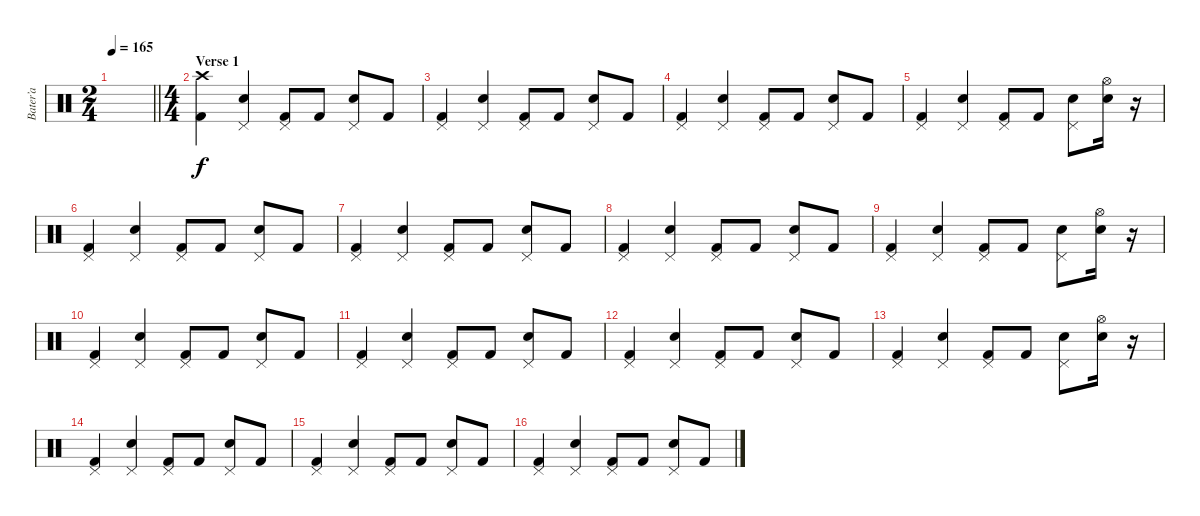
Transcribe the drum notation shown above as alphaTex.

\track ("Bater’a" "Bater’a") {instrument percussion}
\staff {score}
\articulation defaults
\ts (2 4)
\tempo 165
\clef neutral
\barLineRight lightlight
\ks c
|
\ts (4 4)
\section ("" "Verse 1")
("Crash high (hit)" "Kick (hit) 2").4 ("Pedal Hi-Hat (hit)" "Electric Snare (hit)").4 ("Pedal Hi-Hat (hit)" "Kick (hit) 2").8 "Kick (hit) 2".8 ("Pedal Hi-Hat (hit)" "Electric Snare (hit)").8 "Kick (hit) 2".8 |
("Pedal Hi-Hat (hit)" "Kick (hit) 2").4 ("Pedal Hi-Hat (hit)" "Electric Snare (hit)").4 ("Pedal Hi-Hat (hit)" "Kick (hit) 2").8 "Kick (hit) 2".8 ("Pedal Hi-Hat (hit)" "Electric Snare (hit)").8 "Kick (hit) 2".8 |
("Pedal Hi-Hat (hit)" "Kick (hit) 2").4 ("Pedal Hi-Hat (hit)" "Electric Snare (hit)").4 ("Pedal Hi-Hat (hit)" "Kick (hit) 2").8 "Kick (hit) 2".8 ("Pedal Hi-Hat (hit)" "Electric Snare (hit)").8 "Kick (hit) 2".8 |
("Pedal Hi-Hat (hit)" "Kick (hit) 2").4 ("Pedal Hi-Hat (hit)" "Electric Snare (hit)").4 ("Pedal Hi-Hat (hit)" "Kick (hit) 2").8 "Kick (hit) 2".8 ("Pedal Hi-Hat (hit)" "Electric Snare (hit)").8 ("Hi-Hat (open)" "Electric Snare (hit)").16 r.16 |
("Pedal Hi-Hat (hit)" "Kick (hit) 2").4 ("Pedal Hi-Hat (hit)" "Electric Snare (hit)").4 ("Pedal Hi-Hat (hit)" "Kick (hit) 2").8 "Kick (hit) 2".8 ("Pedal Hi-Hat (hit)" "Electric Snare (hit)").8 "Kick (hit) 2".8 |
("Pedal Hi-Hat (hit)" "Kick (hit) 2").4 ("Pedal Hi-Hat (hit)" "Electric Snare (hit)").4 ("Pedal Hi-Hat (hit)" "Kick (hit) 2").8 "Kick (hit) 2".8 ("Pedal Hi-Hat (hit)" "Electric Snare (hit)").8 "Kick (hit) 2".8 |
("Pedal Hi-Hat (hit)" "Kick (hit) 2").4 ("Pedal Hi-Hat (hit)" "Electric Snare (hit)").4 ("Pedal Hi-Hat (hit)" "Kick (hit) 2").8 "Kick (hit) 2".8 ("Pedal Hi-Hat (hit)" "Electric Snare (hit)").8 "Kick (hit) 2".8 |
("Pedal Hi-Hat (hit)" "Kick (hit) 2").4 ("Pedal Hi-Hat (hit)" "Electric Snare (hit)").4 ("Pedal Hi-Hat (hit)" "Kick (hit) 2").8 "Kick (hit) 2".8 ("Pedal Hi-Hat (hit)" "Electric Snare (hit)").8 ("Hi-Hat (open)" "Electric Snare (hit)").16 r.16 |
("Pedal Hi-Hat (hit)" "Kick (hit) 2").4 ("Pedal Hi-Hat (hit)" "Electric Snare (hit)").4 ("Pedal Hi-Hat (hit)" "Kick (hit) 2").8 "Kick (hit) 2".8 ("Pedal Hi-Hat (hit)" "Electric Snare (hit)").8 "Kick (hit) 2".8 |
("Pedal Hi-Hat (hit)" "Kick (hit) 2").4 ("Pedal Hi-Hat (hit)" "Electric Snare (hit)").4 ("Pedal Hi-Hat (hit)" "Kick (hit) 2").8 "Kick (hit) 2".8 ("Pedal Hi-Hat (hit)" "Electric Snare (hit)").8 "Kick (hit) 2".8 |
("Pedal Hi-Hat (hit)" "Kick (hit) 2").4 ("Pedal Hi-Hat (hit)" "Electric Snare (hit)").4 ("Pedal Hi-Hat (hit)" "Kick (hit) 2").8 "Kick (hit) 2".8 ("Pedal Hi-Hat (hit)" "Electric Snare (hit)").8 "Kick (hit) 2".8 |
("Pedal Hi-Hat (hit)" "Kick (hit) 2").4 ("Pedal Hi-Hat (hit)" "Electric Snare (hit)").4 ("Pedal Hi-Hat (hit)" "Kick (hit) 2").8 "Kick (hit) 2".8 ("Pedal Hi-Hat (hit)" "Electric Snare (hit)").8 ("Hi-Hat (open)" "Electric Snare (hit)").16 r.16 |
("Pedal Hi-Hat (hit)" "Kick (hit) 2").4 ("Pedal Hi-Hat (hit)" "Electric Snare (hit)").4 ("Pedal Hi-Hat (hit)" "Kick (hit) 2").8 "Kick (hit) 2".8 ("Pedal Hi-Hat (hit)" "Electric Snare (hit)").8 "Kick (hit) 2".8 |
("Pedal Hi-Hat (hit)" "Kick (hit) 2").4 ("Pedal Hi-Hat (hit)" "Electric Snare (hit)").4 ("Pedal Hi-Hat (hit)" "Kick (hit) 2").8 "Kick (hit) 2".8 ("Pedal Hi-Hat (hit)" "Electric Snare (hit)").8 "Kick (hit) 2".8 |
("Pedal Hi-Hat (hit)" "Kick (hit) 2").4 ("Pedal Hi-Hat (hit)" "Electric Snare (hit)").4 ("Pedal Hi-Hat (hit)" "Kick (hit) 2").8 "Kick (hit) 2".8 ("Pedal Hi-Hat (hit)" "Electric Snare (hit)").8 "Kick (hit) 2".8
